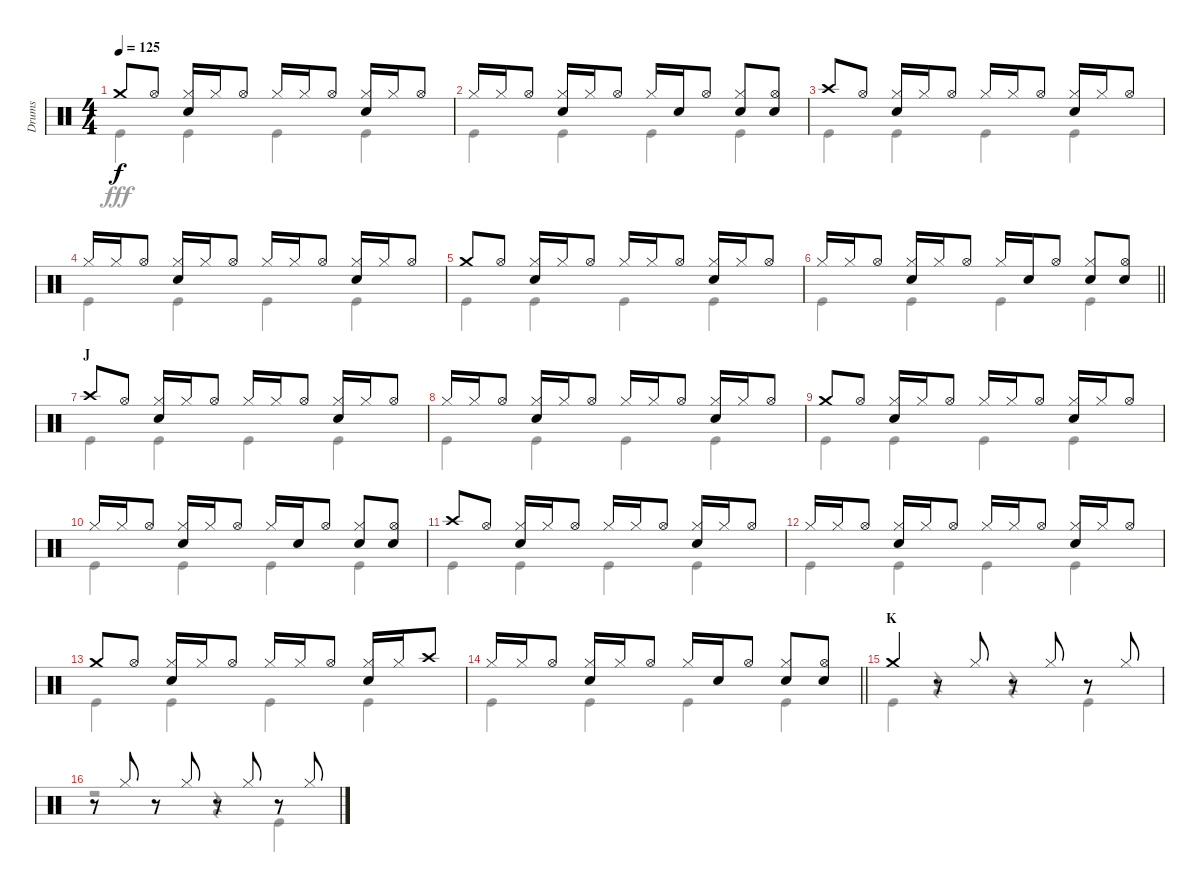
\track ("Drums" "Drums") {instrument percussion}
\staff {score}
\articulation defaults
\voice
\ts (4 4)
\tempo 125
\clef neutral
\ks c "Crash medium (hit)".8{dy f} "Hi-Hat (open)".8
("Hi-Hat (closed)" "Snare (hit) 2").16 "Hi-Hat (closed)".16 "Hi-Hat (open)".8 "Hi-Hat (closed)".16 "Hi-Hat (closed)".16 "Hi-Hat (open)".8 ("Hi-Hat (closed)" "Snare (hit) 2").16 "Hi-Hat (closed)".16 "Hi-Hat (open)".8 |
"Hi-Hat (closed)".16 "Hi-Hat (closed)".16 "Hi-Hat (open)".8 ("Hi-Hat (closed)" "Snare (hit) 2").16 "Hi-Hat (closed)".16 "Hi-Hat (open)".8 "Hi-Hat (closed)".16 "Snare (hit) 2".16 "Hi-Hat (open)".8 ("Hi-Hat (closed)" "Snare (hit) 2").8 ("Hi-Hat (open)" "Snare (hit) 2").8 |
"Crash high (hit)".8 "Hi-Hat (open)".8 ("Hi-Hat (closed)" "Snare (hit) 2").16 "Hi-Hat (closed)".16 "Hi-Hat (open)".8 "Hi-Hat (closed)".16 "Hi-Hat (closed)".16 "Hi-Hat (open)".8 ("Hi-Hat (closed)" "Snare (hit) 2").16 "Hi-Hat (closed)".16 "Hi-Hat (open)".8 |
"Hi-Hat (closed)".16 "Hi-Hat (closed)".16 "Hi-Hat (open)".8 ("Hi-Hat (closed)" "Snare (hit) 2").16 "Hi-Hat (closed)".16 "Hi-Hat (open)".8 "Hi-Hat (closed)".16 "Hi-Hat (closed)".16 "Hi-Hat (open)".8 ("Hi-Hat (closed)" "Snare (hit) 2").16 "Hi-Hat (closed)".16 "Hi-Hat (open)".8 |
"Crash medium (hit)".8 "Hi-Hat (open)".8 ("Hi-Hat (closed)" "Snare (hit) 2").16 "Hi-Hat (closed)".16 "Hi-Hat (open)".8 "Hi-Hat (closed)".16 "Hi-Hat (closed)".16 "Hi-Hat (open)".8 ("Hi-Hat (closed)" "Snare (hit) 2").16 "Hi-Hat (closed)".16 "Hi-Hat (open)".8 |
\barLineRight lightlight "Hi-Hat (closed)".16 "Hi-Hat (closed)".16 "Hi-Hat (open)".8
("Hi-Hat (closed)" "Snare (hit) 2").16 "Hi-Hat (closed)".16 "Hi-Hat (open)".8 "Hi-Hat (closed)".16 "Snare (hit) 2".16 "Hi-Hat (open)".8 ("Hi-Hat (closed)" "Snare (hit) 2").8 ("Hi-Hat (open)" "Snare (hit) 2").8 |
\section ("" "J")
"Crash high (hit)".8 "Hi-Hat (open)".8 ("Hi-Hat (closed)" "Snare (hit) 2").16 "Hi-Hat (closed)".16 "Hi-Hat (open)".8 "Hi-Hat (closed)".16 "Hi-Hat (closed)".16 "Hi-Hat (open)".8 ("Hi-Hat (closed)" "Snare (hit) 2").16 "Hi-Hat (closed)".16 "Hi-Hat (open)".8 |
"Hi-Hat (closed)".16 "Hi-Hat (closed)".16 "Hi-Hat (open)".8 ("Hi-Hat (closed)" "Snare (hit) 2").16 "Hi-Hat (closed)".16 "Hi-Hat (open)".8 "Hi-Hat (closed)".16 "Hi-Hat (closed)".16 "Hi-Hat (open)".8 ("Hi-Hat (closed)" "Snare (hit) 2").16 "Hi-Hat (closed)".16 "Hi-Hat (open)".8 |
"Crash medium (hit)".8 "Hi-Hat (open)".8 ("Hi-Hat (closed)" "Snare (hit) 2").16 "Hi-Hat (closed)".16 "Hi-Hat (open)".8 "Hi-Hat (closed)".16 "Hi-Hat (closed)".16 "Hi-Hat (open)".8 ("Hi-Hat (closed)" "Snare (hit) 2").16 "Hi-Hat (closed)".16 "Hi-Hat (open)".8 |
"Hi-Hat (closed)".16 "Hi-Hat (closed)".16 "Hi-Hat (open)".8 ("Hi-Hat (closed)" "Snare (hit) 2").16 "Hi-Hat (closed)".16 "Hi-Hat (open)".8 "Hi-Hat (closed)".16 "Snare (hit) 2".16 "Hi-Hat (open)".8 ("Hi-Hat (closed)" "Snare (hit) 2").8 ("Hi-Hat (open)" "Snare (hit) 2").8 |
"Crash high (hit)".8 "Hi-Hat (open)".8 ("Hi-Hat (closed)" "Snare (hit) 2").16 "Hi-Hat (closed)".16 "Hi-Hat (open)".8 "Hi-Hat (closed)".16 "Hi-Hat (closed)".16 "Hi-Hat (open)".8 ("Hi-Hat (closed)" "Snare (hit) 2").16 "Hi-Hat (closed)".16 "Hi-Hat (open)".8 |
"Hi-Hat (closed)".16 "Hi-Hat (closed)".16 "Hi-Hat (open)".8 ("Hi-Hat (closed)" "Snare (hit) 2").16 "Hi-Hat (closed)".16 "Hi-Hat (open)".8 "Hi-Hat (closed)".16 "Hi-Hat (closed)".16 "Hi-Hat (open)".8 ("Hi-Hat (closed)" "Snare (hit) 2").16 "Hi-Hat (closed)".16 "Hi-Hat (open)".8 |
"Crash medium (hit)".8 "Hi-Hat (open)".8 ("Hi-Hat (closed)" "Snare (hit) 2").16 "Hi-Hat (closed)".16 "Hi-Hat (open)".8 "Hi-Hat (closed)".16 "Hi-Hat (closed)".16 "Hi-Hat (open)".8 ("Hi-Hat (closed)" "Snare (hit) 2").16 "Hi-Hat (closed)".16 "Crash high (hit)".8 |
\barLineRight lightlight "Hi-Hat (closed)".16 "Hi-Hat (closed)".16 "Hi-Hat (open)".8
("Hi-Hat (closed)" "Snare (hit) 2").16 "Hi-Hat (closed)".16 "Hi-Hat (open)".8 "Hi-Hat (closed)".16 "Snare (hit) 2".16 "Hi-Hat (open)".8 ("Hi-Hat (closed)" "Snare (hit) 2").8 ("Hi-Hat (open)" "Snare (hit) 2").8 |
\section ("" "K")
"Crash medium (hit)".4 r.8 "Hi-Hat (closed)".8 r.8 "Hi-Hat (closed)".8 r.8 "Hi-Hat (closed)".8 |
r.8 "Hi-Hat (closed)".8 r.8 "Hi-Hat (closed)".8 r.8 "Hi-Hat (closed)".8 r.8 "Hi-Hat (closed)".8
\voice
\clef neutral
\ottava regular
\simile none
\ks c "Kick (hit)".4{dy fff} "Kick (hit)".4 "Kick (hit)".4 "Kick (hit)".4
|
"Kick (hit)".4 "Kick (hit)".4 "Kick (hit)".4 "Kick (hit)".4 |
"Kick (hit)".4 "Kick (hit)".4 "Kick (hit)".4 "Kick (hit)".4 |
"Kick (hit)".4 "Kick (hit)".4 "Kick (hit)".4 "Kick (hit)".4 |
"Kick (hit)".4 "Kick (hit)".4 "Kick (hit)".4 "Kick (hit)".4 |
\barLineRight lightlight "Kick (hit)".4 "Kick (hit)".4 "Kick (hit)".4 "Kick (hit)".4
|
"Kick (hit)".4 "Kick (hit)".4 "Kick (hit)".4 "Kick (hit)".4 |
"Kick (hit)".4 "Kick (hit)".4 "Kick (hit)".4 "Kick (hit)".4 |
"Kick (hit)".4 "Kick (hit)".4 "Kick (hit)".4 "Kick (hit)".4 |
"Kick (hit)".4 "Kick (hit)".4 "Kick (hit)".4 "Kick (hit)".4 |
"Kick (hit)".4 "Kick (hit)".4 "Kick (hit)".4 "Kick (hit)".4 |
"Kick (hit)".4 "Kick (hit)".4 "Kick (hit)".4 "Kick (hit)".4 |
"Kick (hit)".4 "Kick (hit)".4 "Kick (hit)".4 "Kick (hit)".4 |
\barLineRight lightlight "Kick (hit)".4 "Kick (hit)".4 "Kick (hit)".4 "Kick (hit)".4
|
"Kick (hit)".4 r.4 r.4 "Kick (hit)".4 |
r.2 r.4 "Kick (hit)".4
